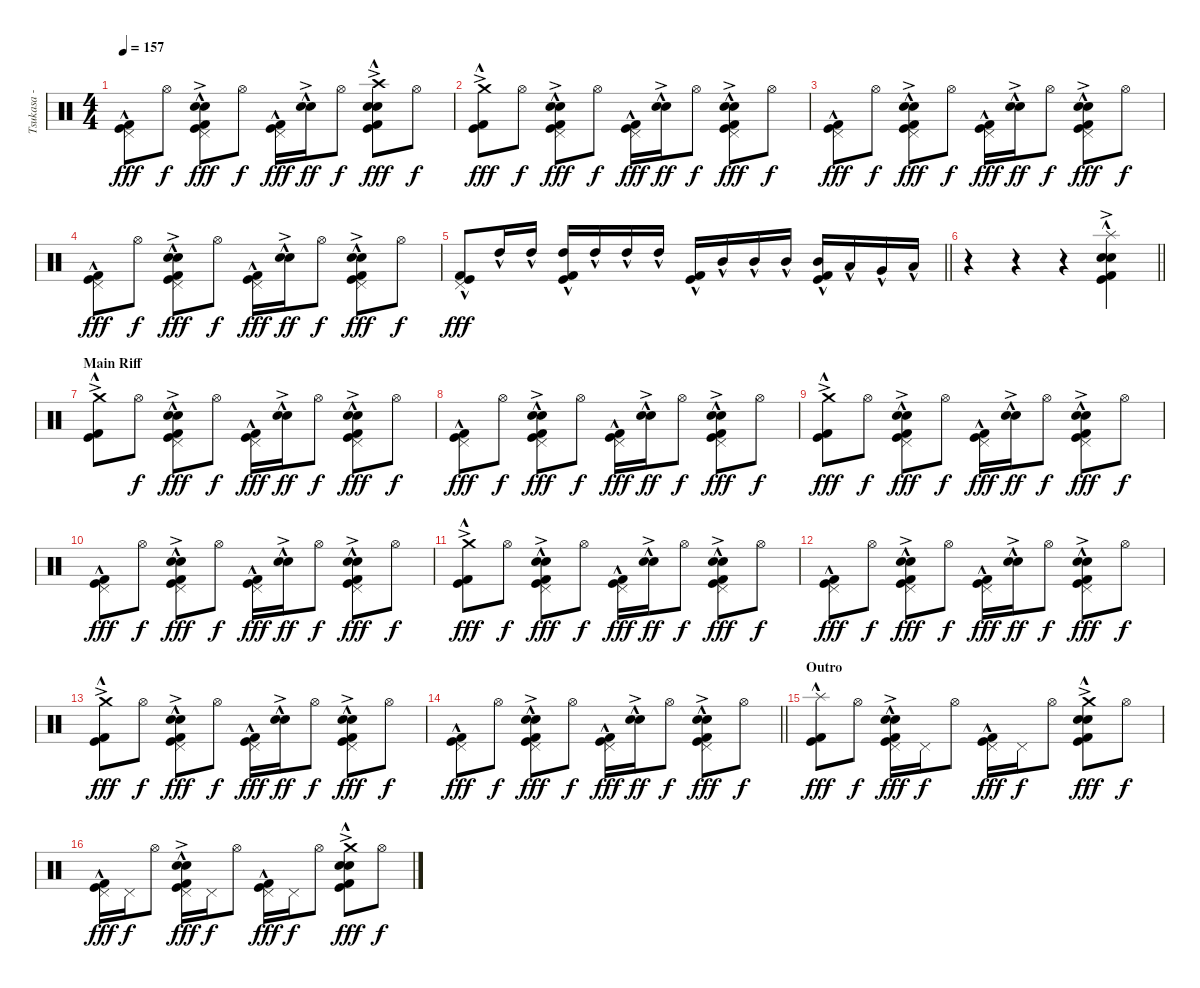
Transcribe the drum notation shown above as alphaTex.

\track ("Tsukasa - Drums" "Tsukasa - ") {instrument percussion}
\staff {score}
\articulation defaults
\ts (4 4)
\tempo 157
\clef neutral
\ks c
("Pedal Hi-Hat (hit)" "Kick (hit) 2"{hac} "Kick (hit)"{hac}).8{dy fff} "Hi-Hat (open)".8{dy f} ("Pedal Hi-Hat (hit)" "Electric Snare (hit)"{hac} "Snare (hit) 2"{ac} "Kick (hit) 2"{hac} "Kick (hit)"{hac}).8{dy fff} "Hi-Hat (open)".8{dy f} ("Pedal Hi-Hat (hit)" "Kick (hit) 2"{hac} "Kick (hit)"{hac}).16{dy fff} ("Electric Snare (hit)"{hac} "Snare (hit) 2"{ac}).16{dy ff} "Hi-Hat (open)".8{dy f} ("Crash high (hit)"{ac} "Electric Snare (hit)"{hac} "Snare (hit) 2"{ac} "Kick (hit) 2"{hac} "Kick (hit)"{hac}).8{dy fff} "Hi-Hat (open)".8{dy f} |
("Crash medium (hit)"{ac} "Kick (hit) 2"{hac} "Kick (hit)"{hac}).8{dy fff} "Hi-Hat (open)".8{dy f} ("Pedal Hi-Hat (hit)" "Electric Snare (hit)"{hac} "Snare (hit) 2"{ac} "Kick (hit) 2"{hac} "Kick (hit)"{hac}).8{dy fff} "Hi-Hat (open)".8{dy f} ("Pedal Hi-Hat (hit)" "Kick (hit) 2"{hac} "Kick (hit)"{hac}).16{dy fff} ("Electric Snare (hit)"{hac} "Snare (hit) 2"{ac}).16{dy ff} "Hi-Hat (open)".8{dy f} ("Pedal Hi-Hat (hit)" "Electric Snare (hit)"{hac} "Snare (hit) 2"{ac} "Kick (hit) 2"{hac} "Kick (hit)"{hac}).8{dy fff} "Hi-Hat (open)".8{dy f} |
("Pedal Hi-Hat (hit)" "Kick (hit) 2"{hac} "Kick (hit)"{hac}).8{dy fff} "Hi-Hat (open)".8{dy f} ("Pedal Hi-Hat (hit)" "Electric Snare (hit)"{hac} "Snare (hit) 2"{ac} "Kick (hit) 2"{hac} "Kick (hit)"{hac}).8{dy fff} "Hi-Hat (open)".8{dy f} ("Pedal Hi-Hat (hit)" "Kick (hit) 2"{hac} "Kick (hit)"{hac}).16{dy fff} ("Electric Snare (hit)"{hac} "Snare (hit) 2"{ac}).16{dy ff} "Hi-Hat (open)".8{dy f} ("Pedal Hi-Hat (hit)" "Electric Snare (hit)"{hac} "Snare (hit) 2"{ac} "Kick (hit) 2"{hac} "Kick (hit)"{hac}).8{dy fff} "Hi-Hat (open)".8{dy f} |
("Pedal Hi-Hat (hit)" "Kick (hit) 2"{hac} "Kick (hit)"{hac}).8{dy fff} "Hi-Hat (open)".8{dy f} ("Pedal Hi-Hat (hit)" "Electric Snare (hit)"{hac} "Snare (hit) 2"{ac} "Kick (hit) 2"{hac} "Kick (hit)"{hac}).8{dy fff} "Hi-Hat (open)".8{dy f} ("Pedal Hi-Hat (hit)" "Kick (hit) 2"{hac} "Kick (hit)"{hac}).16{dy fff} ("Electric Snare (hit)"{hac} "Snare (hit) 2"{ac}).16{dy ff} "Hi-Hat (open)".8{dy f} ("Pedal Hi-Hat (hit)" "Electric Snare (hit)"{hac} "Snare (hit) 2"{ac} "Kick (hit) 2"{hac} "Kick (hit)"{hac}).8{dy fff} "Hi-Hat (open)".8{dy f} |
\barLineRight lightlight
("Pedal Hi-Hat (hit)" "Kick (hit) 2"{hac} "Kick (hit)"{hac}).8{dy fff} "High Tom (hit)"{hac}.16 "High Tom (hit)"{hac}.16 ("High Tom (hit)"{hac} "Kick (hit) 2"{hac} "Kick (hit)"{hac}).16 "High Tom (hit)"{hac}.16 "High Tom (hit)"{hac}.16 "High Tom (hit)"{hac}.16 ("Kick (hit) 2"{hac} "Kick (hit)"{hac}).16 "Mid Tom (hit)"{hac}.16 "Mid Tom (hit)"{hac}.16 "Mid Tom (hit)"{hac}.16 ("Mid Tom (hit)"{hac} "Kick (hit) 2"{hac} "Kick (hit)"{hac}).16 "Low Tom (hit)"{hac}.16 "Very Low Tom (hit)"{hac}.16 "Low Floor Tom (hit)"{hac}.16 |
\barLineRight lightlight
r.4 r.4 r.4 ("Splash (hit)"{hac} "Electric Snare (hit)"{hac} "Snare (hit) 2"{ac} "Kick (hit) 2"{hac} "Kick (hit)"{hac}).4 |
\section ("" "Main Riff")
("Crash medium (hit)"{ac} "Kick (hit) 2"{hac} "Kick (hit)"{hac}).8 "Hi-Hat (open)".8{dy f} ("Pedal Hi-Hat (hit)" "Electric Snare (hit)"{hac} "Snare (hit) 2"{ac} "Kick (hit) 2"{hac} "Kick (hit)"{hac}).8{dy fff} "Hi-Hat (open)".8{dy f} ("Pedal Hi-Hat (hit)" "Kick (hit) 2"{hac} "Kick (hit)"{hac}).16{dy fff} ("Electric Snare (hit)"{hac} "Snare (hit) 2"{ac}).16{dy ff} "Hi-Hat (open)".8{dy f} ("Pedal Hi-Hat (hit)" "Electric Snare (hit)"{hac} "Snare (hit) 2"{ac} "Kick (hit) 2"{hac} "Kick (hit)"{hac}).8{dy fff} "Hi-Hat (open)".8{dy f} |
("Pedal Hi-Hat (hit)" "Kick (hit) 2"{hac} "Kick (hit)"{hac}).8{dy fff} "Hi-Hat (open)".8{dy f} ("Pedal Hi-Hat (hit)" "Electric Snare (hit)"{hac} "Snare (hit) 2"{ac} "Kick (hit) 2"{hac} "Kick (hit)"{hac}).8{dy fff} "Hi-Hat (open)".8{dy f} ("Pedal Hi-Hat (hit)" "Kick (hit) 2"{hac} "Kick (hit)"{hac}).16{dy fff} ("Electric Snare (hit)"{hac} "Snare (hit) 2"{ac}).16{dy ff} "Hi-Hat (open)".8{dy f} ("Pedal Hi-Hat (hit)" "Electric Snare (hit)"{hac} "Snare (hit) 2"{ac} "Kick (hit) 2"{hac} "Kick (hit)"{hac}).8{dy fff} "Hi-Hat (open)".8{dy f} |
("Crash medium (hit)"{ac} "Kick (hit) 2"{hac} "Kick (hit)"{hac}).8{dy fff} "Hi-Hat (open)".8{dy f} ("Pedal Hi-Hat (hit)" "Electric Snare (hit)"{hac} "Snare (hit) 2"{ac} "Kick (hit) 2"{hac} "Kick (hit)"{hac}).8{dy fff} "Hi-Hat (open)".8{dy f} ("Pedal Hi-Hat (hit)" "Kick (hit) 2"{hac} "Kick (hit)"{hac}).16{dy fff} ("Electric Snare (hit)"{hac} "Snare (hit) 2"{ac}).16{dy ff} "Hi-Hat (open)".8{dy f} ("Pedal Hi-Hat (hit)" "Electric Snare (hit)"{hac} "Snare (hit) 2"{ac} "Kick (hit) 2"{hac} "Kick (hit)"{hac}).8{dy fff} "Hi-Hat (open)".8{dy f} |
("Pedal Hi-Hat (hit)" "Kick (hit) 2"{hac} "Kick (hit)"{hac}).8{dy fff} "Hi-Hat (open)".8{dy f} ("Pedal Hi-Hat (hit)" "Electric Snare (hit)"{hac} "Snare (hit) 2"{ac} "Kick (hit) 2"{hac} "Kick (hit)"{hac}).8{dy fff} "Hi-Hat (open)".8{dy f} ("Pedal Hi-Hat (hit)" "Kick (hit) 2"{hac} "Kick (hit)"{hac}).16{dy fff} ("Electric Snare (hit)"{hac} "Snare (hit) 2"{ac}).16{dy ff} "Hi-Hat (open)".8{dy f} ("Pedal Hi-Hat (hit)" "Electric Snare (hit)"{hac} "Snare (hit) 2"{ac} "Kick (hit) 2"{hac} "Kick (hit)"{hac}).8{dy fff} "Hi-Hat (open)".8{dy f} |
("Crash medium (hit)"{ac} "Kick (hit) 2"{hac} "Kick (hit)"{hac}).8{dy fff} "Hi-Hat (open)".8{dy f} ("Pedal Hi-Hat (hit)" "Electric Snare (hit)"{hac} "Snare (hit) 2"{ac} "Kick (hit) 2"{hac} "Kick (hit)"{hac}).8{dy fff} "Hi-Hat (open)".8{dy f} ("Pedal Hi-Hat (hit)" "Kick (hit) 2"{hac} "Kick (hit)"{hac}).16{dy fff} ("Electric Snare (hit)"{hac} "Snare (hit) 2"{ac}).16{dy ff} "Hi-Hat (open)".8{dy f} ("Pedal Hi-Hat (hit)" "Electric Snare (hit)"{hac} "Snare (hit) 2"{ac} "Kick (hit) 2"{hac} "Kick (hit)"{hac}).8{dy fff} "Hi-Hat (open)".8{dy f} |
("Pedal Hi-Hat (hit)" "Kick (hit) 2"{hac} "Kick (hit)"{hac}).8{dy fff} "Hi-Hat (open)".8{dy f} ("Pedal Hi-Hat (hit)" "Electric Snare (hit)"{hac} "Snare (hit) 2"{ac} "Kick (hit) 2"{hac} "Kick (hit)"{hac}).8{dy fff} "Hi-Hat (open)".8{dy f} ("Pedal Hi-Hat (hit)" "Kick (hit) 2"{hac} "Kick (hit)"{hac}).16{dy fff} ("Electric Snare (hit)"{hac} "Snare (hit) 2"{ac}).16{dy ff} "Hi-Hat (open)".8{dy f} ("Pedal Hi-Hat (hit)" "Electric Snare (hit)"{hac} "Snare (hit) 2"{ac} "Kick (hit) 2"{hac} "Kick (hit)"{hac}).8{dy fff} "Hi-Hat (open)".8{dy f} |
("Crash medium (hit)"{ac} "Kick (hit) 2"{hac} "Kick (hit)"{hac}).8{dy fff} "Hi-Hat (open)".8{dy f} ("Pedal Hi-Hat (hit)" "Electric Snare (hit)"{hac} "Snare (hit) 2"{ac} "Kick (hit) 2"{hac} "Kick (hit)"{hac}).8{dy fff} "Hi-Hat (open)".8{dy f} ("Pedal Hi-Hat (hit)" "Kick (hit) 2"{hac} "Kick (hit)"{hac}).16{dy fff} ("Electric Snare (hit)"{hac} "Snare (hit) 2"{ac}).16{dy ff} "Hi-Hat (open)".8{dy f} ("Pedal Hi-Hat (hit)" "Electric Snare (hit)"{hac} "Snare (hit) 2"{ac} "Kick (hit) 2"{hac} "Kick (hit)"{hac}).8{dy fff} "Hi-Hat (open)".8{dy f} |
\barLineRight lightlight
("Pedal Hi-Hat (hit)" "Kick (hit) 2"{hac} "Kick (hit)"{hac}).8{dy fff} "Hi-Hat (open)".8{dy f} ("Pedal Hi-Hat (hit)" "Electric Snare (hit)"{hac} "Snare (hit) 2"{ac} "Kick (hit) 2"{hac} "Kick (hit)"{hac}).8{dy fff} "Hi-Hat (open)".8{dy f} ("Pedal Hi-Hat (hit)" "Kick (hit) 2"{hac} "Kick (hit)"{hac}).16{dy fff} ("Electric Snare (hit)"{hac} "Snare (hit) 2"{ac}).16{dy ff} "Hi-Hat (open)".8{dy f} ("Pedal Hi-Hat (hit)" "Electric Snare (hit)"{hac} "Snare (hit) 2"{ac} "Kick (hit) 2"{hac} "Kick (hit)"{hac}).8{dy fff} "Hi-Hat (open)".8{dy f} |
\section ("" "Outro")
("Splash (hit)"{hac} "Kick (hit) 2"{hac} "Kick (hit)"{hac}).8{dy fff} "Hi-Hat (open)".8{dy f} ("Pedal Hi-Hat (hit)" "Electric Snare (hit)"{hac} "Snare (hit) 2"{ac} "Kick (hit) 2"{hac} "Kick (hit)"{hac}).16{dy fff} "Pedal Hi-Hat (hit)".16{dy f} "Hi-Hat (open)".8 ("Pedal Hi-Hat (hit)" "Kick (hit) 2"{hac} "Kick (hit)"{hac}).16{dy fff} "Pedal Hi-Hat (hit)".16{dy f} "Hi-Hat (open)".8 ("Crash medium (hit)"{ac} "Electric Snare (hit)"{hac} "Snare (hit) 2"{ac} "Kick (hit) 2"{hac} "Kick (hit)"{hac}).8{dy fff} "Hi-Hat (open)".8{dy f} |
("Pedal Hi-Hat (hit)" "Kick (hit) 2"{hac} "Kick (hit)"{hac}).16{dy fff} "Pedal Hi-Hat (hit)".16{dy f} "Hi-Hat (open)".8 ("Pedal Hi-Hat (hit)" "Electric Snare (hit)"{hac} "Snare (hit) 2"{ac} "Kick (hit) 2"{hac} "Kick (hit)"{hac}).16{dy fff} "Pedal Hi-Hat (hit)".16{dy f} "Hi-Hat (open)".8 ("Pedal Hi-Hat (hit)" "Kick (hit) 2"{hac} "Kick (hit)"{hac}).16{dy fff} "Pedal Hi-Hat (hit)".16{dy f} "Hi-Hat (open)".8 ("Crash medium (hit)"{ac} "Electric Snare (hit)"{hac} "Snare (hit) 2"{ac} "Kick (hit) 2"{hac} "Kick (hit)"{hac}).8{dy fff} "Hi-Hat (open)".8{dy f}
